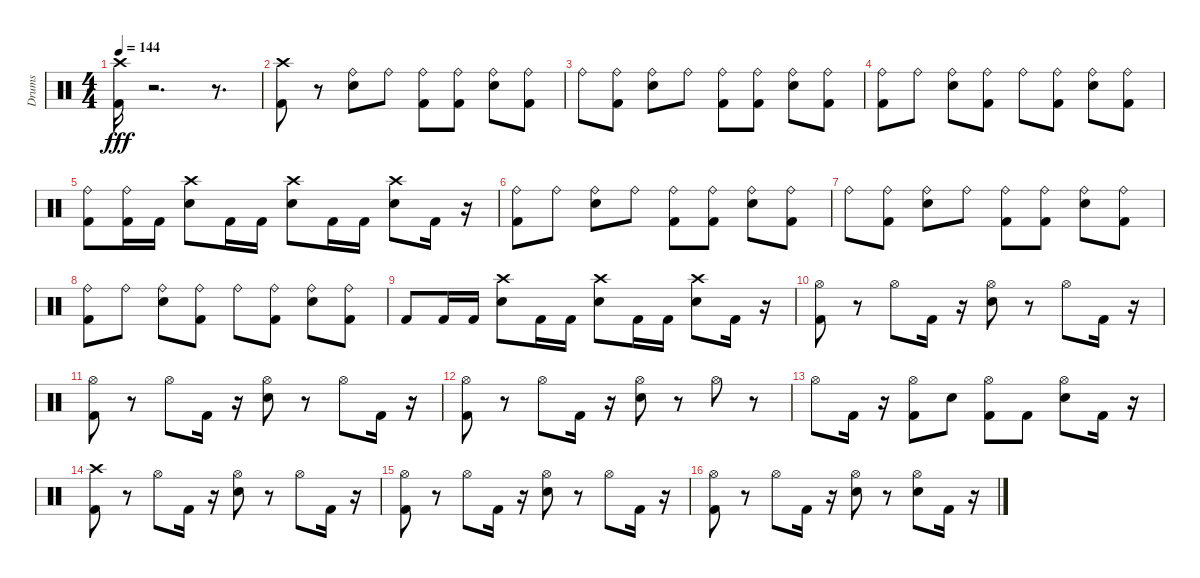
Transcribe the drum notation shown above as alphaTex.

\track ("Drums" "Drums") {instrument percussion}
\staff {score}
\articulation defaults
\ts (4 4)
\tempo 144
\clef neutral
\ks c
("Crash high (hit)" "Kick (hit) 2").16{dy fff} r.2{d} r.8{d} |
("Crash high (hit)" "Kick (hit) 2").8 r.8 ("Ride (bell)" "Snare (hit) 2").8 "Ride (bell)".8 ("Ride (bell)" "Kick (hit) 2").8 ("Ride (bell)" "Kick (hit) 2").8 ("Ride (bell)" "Snare (hit) 2").8 ("Ride (bell)" "Kick (hit) 2").8 |
"Ride (bell)".8 ("Ride (bell)" "Kick (hit) 2").8 ("Ride (bell)" "Snare (hit) 2").8 "Ride (bell)".8 ("Ride (bell)" "Kick (hit) 2").8 ("Ride (bell)" "Kick (hit) 2").8 ("Ride (bell)" "Snare (hit) 2").8 ("Ride (bell)" "Kick (hit) 2").8 |
("Ride (bell)" "Kick (hit) 2").8 "Ride (bell)".8 ("Ride (bell)" "Snare (hit) 2").8 ("Ride (bell)" "Kick (hit) 2").8 "Ride (bell)".8 ("Ride (bell)" "Kick (hit) 2").8 ("Ride (bell)" "Snare (hit) 2").8 ("Ride (bell)" "Kick (hit) 2").8 |
("Ride (bell)" "Kick (hit) 2").8 ("Ride (bell)" "Kick (hit) 2").16 "Kick (hit) 2".16 ("Snare (hit) 2" "Crash high (hit)").8 "Kick (hit) 2".16 "Kick (hit) 2".16 ("Snare (hit) 2" "Crash high (hit)").8 "Kick (hit) 2".16 "Kick (hit) 2".16 ("Snare (hit) 2" "Crash high (hit)").8 "Kick (hit) 2".16 r.16 |
("Ride (bell)" "Kick (hit) 2").8 "Ride (bell)".8 ("Ride (bell)" "Snare (hit) 2").8 "Ride (bell)".8 ("Ride (bell)" "Kick (hit) 2").8 ("Ride (bell)" "Kick (hit) 2").8 ("Ride (bell)" "Snare (hit) 2").8 ("Ride (bell)" "Kick (hit) 2").8 |
"Ride (bell)".8 ("Ride (bell)" "Kick (hit) 2").8 ("Ride (bell)" "Snare (hit) 2").8 "Ride (bell)".8 ("Ride (bell)" "Kick (hit) 2").8 ("Ride (bell)" "Kick (hit) 2").8 ("Ride (bell)" "Snare (hit) 2").8 ("Ride (bell)" "Kick (hit) 2").8 |
("Kick (hit) 2" "Ride (bell)").8 "Ride (bell)".8 ("Snare (hit) 2" "Ride (bell)").8 ("Kick (hit) 2" "Ride (bell)").8 "Ride (bell)".8 ("Kick (hit) 2" "Ride (bell)").8 ("Snare (hit) 2" "Ride (bell)").8 ("Kick (hit) 2" "Ride (bell)").8 |
"Kick (hit) 2".8 "Kick (hit) 2".16 "Kick (hit) 2".16 ("Snare (hit) 2" "Crash high (hit)").8 "Kick (hit) 2".16 "Kick (hit) 2".16 ("Snare (hit) 2" "Crash high (hit)").8 "Kick (hit) 2".16 "Kick (hit) 2".16 ("Snare (hit) 2" "Crash high (hit)").8 "Kick (hit) 2".16 r.16 |
("Kick (hit) 2" "Hi-Hat (open)").8 r.8 "Hi-Hat (open)".8 "Kick (hit) 2".16 r.16 ("Snare (hit) 2" "Hi-Hat (open)").8 r.8 "Hi-Hat (open)".8 "Kick (hit) 2".16 r.16 |
("Kick (hit) 2" "Hi-Hat (open)").8 r.8 "Hi-Hat (open)".8 "Kick (hit) 2".16 r.16 ("Snare (hit) 2" "Hi-Hat (open)").8 r.8 "Hi-Hat (open)".8 "Kick (hit) 2".16 r.16 |
("Kick (hit) 2" "Hi-Hat (open)").8 r.8 "Hi-Hat (open)".8 "Kick (hit) 2".16 r.16 ("Snare (hit) 2" "Hi-Hat (open)").8 r.8 "Hi-Hat (open)".8 r.8 |
"Hi-Hat (open)".8 "Kick (hit) 2".16 r.16 ("Kick (hit) 2" "Hi-Hat (open)").8 "Snare (hit) 2".8 ("Kick (hit) 2" "Hi-Hat (open)").8 "Kick (hit) 2".8 ("Snare (hit) 2" "Hi-Hat (open)").8 "Kick (hit) 2".16 r.16 |
("Kick (hit) 2" "Crash high (hit)").8 r.8 "Hi-Hat (open)".8 "Kick (hit) 2".16 r.16 ("Snare (hit) 2" "Hi-Hat (open)").8 r.8 "Hi-Hat (open)".8 "Kick (hit) 2".16 r.16 |
("Kick (hit) 2" "Hi-Hat (open)").8 r.8 "Hi-Hat (open)".8 "Kick (hit) 2".16 r.16 ("Snare (hit) 2" "Hi-Hat (open)").8 r.8 "Hi-Hat (open)".8 "Kick (hit) 2".16 r.16 |
("Kick (hit) 2" "Hi-Hat (open)").8 r.8 "Hi-Hat (open)".8 "Kick (hit) 2".16 r.16 ("Snare (hit) 2" "Hi-Hat (open)").8 r.8 ("Hi-Hat (open)" "Snare (hit) 2").8 "Kick (hit) 2".16 r.16
